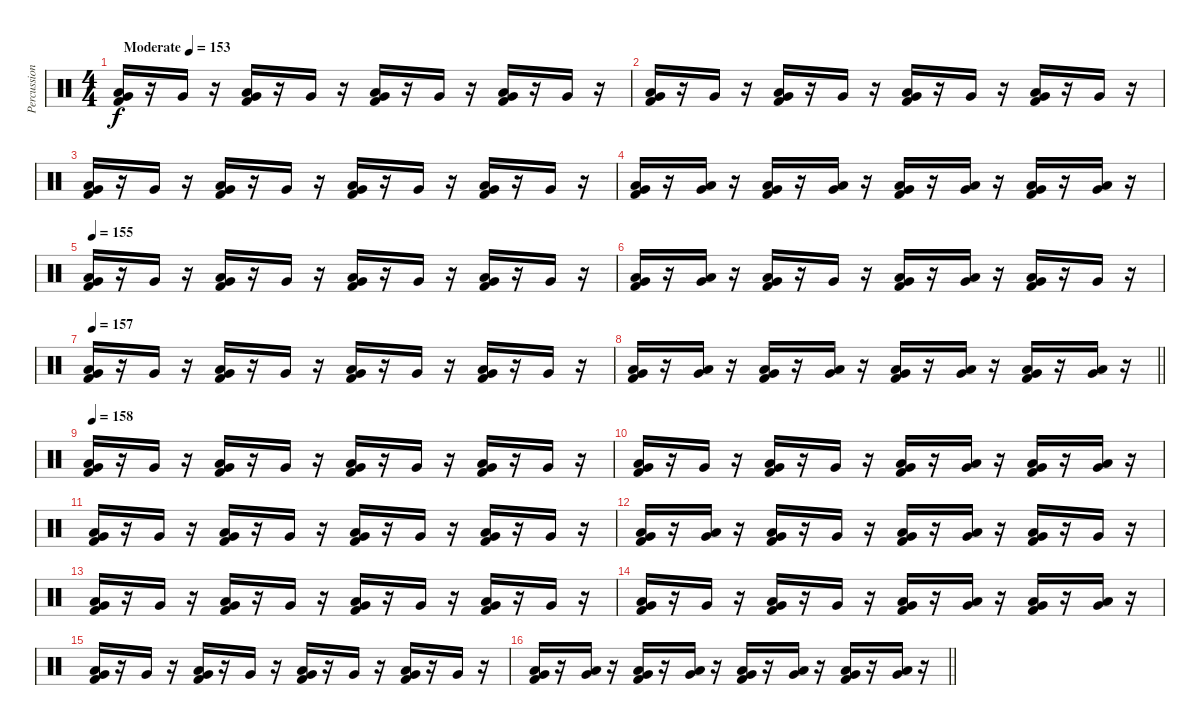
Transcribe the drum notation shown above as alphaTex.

\track ("Percussion" "Percussion") {instrument percussion}
\staff {score}
\articulation defaults
\ts (4 4)
\tempo (153 "Moderate")
\clef neutral
\ks c
("Low Tom (hit)" "Very Low Tom (hit)" "Kick (hit) 2").16{dy f} r.16 "Very Low Tom (hit)".16 r.16 ("Low Tom (hit)" "Very Low Tom (hit)" "Kick (hit) 2").16 r.16 "Very Low Tom (hit)".16 r.16 ("Low Tom (hit)" "Very Low Tom (hit)" "Kick (hit) 2").16 r.16 "Very Low Tom (hit)".16 r.16 ("Low Tom (hit)" "Very Low Tom (hit)" "Kick (hit) 2").16 r.16 "Very Low Tom (hit)".16 r.16 |
("Low Tom (hit)" "Very Low Tom (hit)" "Kick (hit) 2").16 r.16 "Very Low Tom (hit)".16 r.16 ("Low Tom (hit)" "Very Low Tom (hit)" "Kick (hit) 2").16 r.16 "Very Low Tom (hit)".16 r.16 ("Low Tom (hit)" "Very Low Tom (hit)" "Kick (hit) 2").16 r.16 "Very Low Tom (hit)".16 r.16 ("Low Tom (hit)" "Very Low Tom (hit)" "Kick (hit) 2").16 r.16 "Very Low Tom (hit)".16 r.16 |
("Low Tom (hit)" "Very Low Tom (hit)" "Kick (hit) 2").16 r.16 "Very Low Tom (hit)".16 r.16 ("Low Tom (hit)" "Very Low Tom (hit)" "Kick (hit) 2").16 r.16 "Very Low Tom (hit)".16 r.16 ("Low Tom (hit)" "Very Low Tom (hit)" "Kick (hit) 2").16 r.16 "Very Low Tom (hit)".16 r.16 ("Low Tom (hit)" "Very Low Tom (hit)" "Kick (hit) 2").16 r.16 "Very Low Tom (hit)".16 r.16 |
("Low Tom (hit)" "Very Low Tom (hit)" "Kick (hit) 2").16 r.16 ("Low Tom (hit)" "Very Low Tom (hit)").16 r.16 ("Low Tom (hit)" "Very Low Tom (hit)" "Kick (hit) 2").16 r.16 ("Low Tom (hit)" "Very Low Tom (hit)").16 r.16 ("Low Tom (hit)" "Very Low Tom (hit)" "Kick (hit) 2").16 r.16 ("Low Tom (hit)" "Very Low Tom (hit)").16 r.16 ("Low Tom (hit)" "Very Low Tom (hit)" "Kick (hit) 2").16 r.16 ("Low Tom (hit)" "Very Low Tom (hit)").16 r.16 |
\tempo 155
("Low Tom (hit)" "Very Low Tom (hit)" "Kick (hit) 2").16 r.16 "Very Low Tom (hit)".16 r.16 ("Low Tom (hit)" "Very Low Tom (hit)" "Kick (hit) 2").16 r.16 "Very Low Tom (hit)".16 r.16 ("Low Tom (hit)" "Very Low Tom (hit)" "Kick (hit) 2").16 r.16 "Very Low Tom (hit)".16 r.16 ("Low Tom (hit)" "Very Low Tom (hit)" "Kick (hit) 2").16 r.16 "Very Low Tom (hit)".16 r.16 |
("Low Tom (hit)" "Very Low Tom (hit)" "Kick (hit) 2").16 r.16 ("Low Tom (hit)" "Very Low Tom (hit)").16 r.16 ("Low Tom (hit)" "Very Low Tom (hit)" "Kick (hit) 2").16 r.16 "Very Low Tom (hit)".16 r.16 ("Low Tom (hit)" "Very Low Tom (hit)" "Kick (hit) 2").16 r.16 ("Low Tom (hit)" "Very Low Tom (hit)").16 r.16 ("Low Tom (hit)" "Very Low Tom (hit)" "Kick (hit) 2").16 r.16 "Very Low Tom (hit)".16 r.16 |
\tempo 157
("Low Tom (hit)" "Very Low Tom (hit)" "Kick (hit) 2").16 r.16 "Very Low Tom (hit)".16 r.16 ("Low Tom (hit)" "Very Low Tom (hit)" "Kick (hit) 2").16 r.16 "Very Low Tom (hit)".16 r.16 ("Low Tom (hit)" "Very Low Tom (hit)" "Kick (hit) 2").16 r.16 "Very Low Tom (hit)".16 r.16 ("Low Tom (hit)" "Very Low Tom (hit)" "Kick (hit) 2").16 r.16 "Very Low Tom (hit)".16 r.16 |
\barLineRight lightlight
("Low Tom (hit)" "Very Low Tom (hit)" "Kick (hit) 2").16 r.16 ("Low Tom (hit)" "Very Low Tom (hit)").16 r.16 ("Low Tom (hit)" "Very Low Tom (hit)" "Kick (hit) 2").16 r.16 ("Low Tom (hit)" "Very Low Tom (hit)").16 r.16 ("Low Tom (hit)" "Very Low Tom (hit)" "Kick (hit) 2").16 r.16 ("Low Tom (hit)" "Very Low Tom (hit)").16 r.16 ("Low Tom (hit)" "Very Low Tom (hit)" "Kick (hit) 2").16 r.16 ("Low Tom (hit)" "Very Low Tom (hit)").16 r.16 |
\section ("" "")
\tempo 158
("Low Tom (hit)" "Very Low Tom (hit)" "Kick (hit) 2").16 r.16 "Very Low Tom (hit)".16 r.16 ("Low Tom (hit)" "Very Low Tom (hit)" "Kick (hit) 2").16 r.16 "Very Low Tom (hit)".16 r.16 ("Low Tom (hit)" "Very Low Tom (hit)" "Kick (hit) 2").16 r.16 "Very Low Tom (hit)".16 r.16 ("Low Tom (hit)" "Very Low Tom (hit)" "Kick (hit) 2").16 r.16 "Very Low Tom (hit)".16 r.16 |
("Low Tom (hit)" "Very Low Tom (hit)" "Kick (hit) 2").16 r.16 "Very Low Tom (hit)".16 r.16 ("Low Tom (hit)" "Very Low Tom (hit)" "Kick (hit) 2").16 r.16 "Very Low Tom (hit)".16 r.16 ("Low Tom (hit)" "Very Low Tom (hit)" "Kick (hit) 2").16 r.16 ("Low Tom (hit)" "Very Low Tom (hit)").16 r.16 ("Low Tom (hit)" "Very Low Tom (hit)" "Kick (hit) 2").16 r.16 ("Low Tom (hit)" "Very Low Tom (hit)").16 r.16 |
("Low Tom (hit)" "Very Low Tom (hit)" "Kick (hit) 2").16 r.16 "Very Low Tom (hit)".16 r.16 ("Low Tom (hit)" "Very Low Tom (hit)" "Kick (hit) 2").16 r.16 "Very Low Tom (hit)".16 r.16 ("Low Tom (hit)" "Very Low Tom (hit)" "Kick (hit) 2").16 r.16 "Very Low Tom (hit)".16 r.16 ("Low Tom (hit)" "Very Low Tom (hit)" "Kick (hit) 2").16 r.16 "Very Low Tom (hit)".16 r.16 |
("Low Tom (hit)" "Very Low Tom (hit)" "Kick (hit) 2").16 r.16 ("Low Tom (hit)" "Very Low Tom (hit)").16 r.16 ("Low Tom (hit)" "Very Low Tom (hit)" "Kick (hit) 2").16 r.16 "Very Low Tom (hit)".16 r.16 ("Low Tom (hit)" "Very Low Tom (hit)" "Kick (hit) 2").16 r.16 ("Low Tom (hit)" "Very Low Tom (hit)").16 r.16 ("Low Tom (hit)" "Very Low Tom (hit)" "Kick (hit) 2").16 r.16 "Very Low Tom (hit)".16 r.16 |
("Low Tom (hit)" "Very Low Tom (hit)" "Kick (hit) 2").16 r.16 "Very Low Tom (hit)".16 r.16 ("Low Tom (hit)" "Very Low Tom (hit)" "Kick (hit) 2").16 r.16 "Very Low Tom (hit)".16 r.16 ("Low Tom (hit)" "Very Low Tom (hit)" "Kick (hit) 2").16 r.16 "Very Low Tom (hit)".16 r.16 ("Low Tom (hit)" "Very Low Tom (hit)" "Kick (hit) 2").16 r.16 "Very Low Tom (hit)".16 r.16 |
("Low Tom (hit)" "Very Low Tom (hit)" "Kick (hit) 2").16 r.16 "Very Low Tom (hit)".16 r.16 ("Low Tom (hit)" "Very Low Tom (hit)" "Kick (hit) 2").16 r.16 "Very Low Tom (hit)".16 r.16 ("Low Tom (hit)" "Very Low Tom (hit)" "Kick (hit) 2").16 r.16 ("Low Tom (hit)" "Very Low Tom (hit)").16 r.16 ("Low Tom (hit)" "Very Low Tom (hit)" "Kick (hit) 2").16 r.16 ("Low Tom (hit)" "Very Low Tom (hit)").16 r.16 |
("Low Tom (hit)" "Very Low Tom (hit)" "Kick (hit) 2").16 r.16 "Very Low Tom (hit)".16 r.16 ("Low Tom (hit)" "Very Low Tom (hit)" "Kick (hit) 2").16 r.16 "Very Low Tom (hit)".16 r.16 ("Low Tom (hit)" "Very Low Tom (hit)" "Kick (hit) 2").16 r.16 "Very Low Tom (hit)".16 r.16 ("Low Tom (hit)" "Very Low Tom (hit)" "Kick (hit) 2").16 r.16 "Very Low Tom (hit)".16 r.16 |
\barLineRight lightlight
("Low Tom (hit)" "Very Low Tom (hit)" "Kick (hit) 2").16 r.16 ("Low Tom (hit)" "Very Low Tom (hit)").16 r.16 ("Low Tom (hit)" "Very Low Tom (hit)" "Kick (hit) 2").16 r.16 ("Low Tom (hit)" "Very Low Tom (hit)").16 r.16 ("Low Tom (hit)" "Very Low Tom (hit)" "Kick (hit) 2").16 r.16 ("Low Tom (hit)" "Very Low Tom (hit)").16 r.16 ("Low Tom (hit)" "Very Low Tom (hit)" "Kick (hit) 2").16 r.16 ("Low Tom (hit)" "Very Low Tom (hit)").16 r.16
